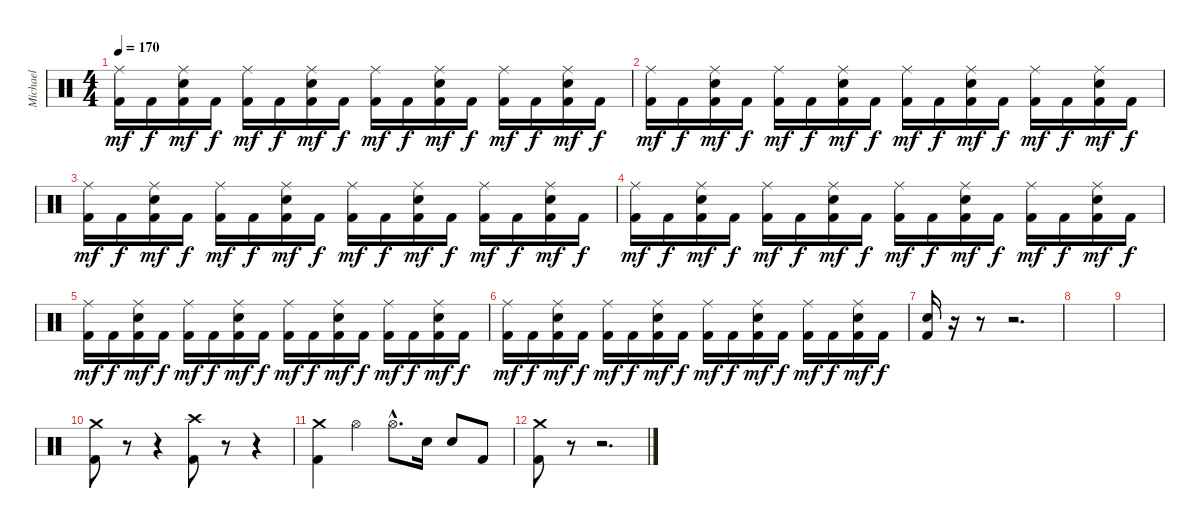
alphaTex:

\track ("Michael" "Michael") {instrument percussion}
\staff {score}
\articulation defaults
\ts (4 4)
\tempo 170
\clef neutral
\ks c
("Ride (middle)" "Kick (hit) 2").16{dy mf} "Kick (hit) 2".16{dy f} ("Ride (middle)" "Electric Snare (hit)" "Kick (hit) 2").16{dy mf} "Kick (hit) 2".16{dy f} ("Ride (middle)" "Kick (hit) 2").16{dy mf} "Kick (hit) 2".16{dy f} ("Ride (middle)" "Electric Snare (hit)" "Kick (hit) 2").16{dy mf} "Kick (hit) 2".16{dy f} ("Ride (middle)" "Kick (hit) 2").16{dy mf} "Kick (hit) 2".16{dy f} ("Ride (middle)" "Electric Snare (hit)" "Kick (hit) 2").16{dy mf} "Kick (hit) 2".16{dy f} ("Ride (middle)" "Kick (hit) 2").16{dy mf} "Kick (hit) 2".16{dy f} ("Ride (middle)" "Electric Snare (hit)" "Kick (hit) 2").16{dy mf} "Kick (hit) 2".16{dy f} |
("Ride (middle)" "Kick (hit) 2").16{dy mf} "Kick (hit) 2".16{dy f} ("Ride (middle)" "Electric Snare (hit)" "Kick (hit) 2").16{dy mf} "Kick (hit) 2".16{dy f} ("Ride (middle)" "Kick (hit) 2").16{dy mf} "Kick (hit) 2".16{dy f} ("Ride (middle)" "Electric Snare (hit)" "Kick (hit) 2").16{dy mf} "Kick (hit) 2".16{dy f} ("Ride (middle)" "Kick (hit) 2").16{dy mf} "Kick (hit) 2".16{dy f} ("Ride (middle)" "Electric Snare (hit)" "Kick (hit) 2").16{dy mf} "Kick (hit) 2".16{dy f} ("Ride (middle)" "Kick (hit) 2").16{dy mf} "Kick (hit) 2".16{dy f} ("Ride (middle)" "Electric Snare (hit)" "Kick (hit) 2").16{dy mf} "Kick (hit) 2".16{dy f} |
("Ride (middle)" "Kick (hit) 2").16{dy mf} "Kick (hit) 2".16{dy f} ("Ride (middle)" "Electric Snare (hit)" "Kick (hit) 2").16{dy mf} "Kick (hit) 2".16{dy f} ("Ride (middle)" "Kick (hit) 2").16{dy mf} "Kick (hit) 2".16{dy f} ("Ride (middle)" "Electric Snare (hit)" "Kick (hit) 2").16{dy mf} "Kick (hit) 2".16{dy f} ("Ride (middle)" "Kick (hit) 2").16{dy mf} "Kick (hit) 2".16{dy f} ("Ride (middle)" "Electric Snare (hit)" "Kick (hit) 2").16{dy mf} "Kick (hit) 2".16{dy f} ("Ride (middle)" "Kick (hit) 2").16{dy mf} "Kick (hit) 2".16{dy f} ("Ride (middle)" "Electric Snare (hit)" "Kick (hit) 2").16{dy mf} "Kick (hit) 2".16{dy f} |
("Ride (middle)" "Kick (hit) 2").16{dy mf} "Kick (hit) 2".16{dy f} ("Ride (middle)" "Electric Snare (hit)" "Kick (hit) 2").16{dy mf} "Kick (hit) 2".16{dy f} ("Ride (middle)" "Kick (hit) 2").16{dy mf} "Kick (hit) 2".16{dy f} ("Ride (middle)" "Electric Snare (hit)" "Kick (hit) 2").16{dy mf} "Kick (hit) 2".16{dy f} ("Ride (middle)" "Kick (hit) 2").16{dy mf} "Kick (hit) 2".16{dy f} ("Ride (middle)" "Electric Snare (hit)" "Kick (hit) 2").16{dy mf} "Kick (hit) 2".16{dy f} ("Ride (middle)" "Kick (hit) 2").16{dy mf} "Kick (hit) 2".16{dy f} ("Ride (middle)" "Electric Snare (hit)" "Kick (hit) 2").16{dy mf} "Kick (hit) 2".16{dy f} |
("Ride (middle)" "Kick (hit) 2").16{dy mf} "Kick (hit) 2".16{dy f} ("Ride (middle)" "Electric Snare (hit)" "Kick (hit) 2").16{dy mf} "Kick (hit) 2".16{dy f} ("Ride (middle)" "Kick (hit) 2").16{dy mf} "Kick (hit) 2".16{dy f} ("Ride (middle)" "Electric Snare (hit)" "Kick (hit) 2").16{dy mf} "Kick (hit) 2".16{dy f} ("Ride (middle)" "Kick (hit) 2").16{dy mf} "Kick (hit) 2".16{dy f} ("Ride (middle)" "Electric Snare (hit)" "Kick (hit) 2").16{dy mf} "Kick (hit) 2".16{dy f} ("Ride (middle)" "Kick (hit) 2").16{dy mf} "Kick (hit) 2".16{dy f} ("Ride (middle)" "Electric Snare (hit)" "Kick (hit) 2").16{dy mf} "Kick (hit) 2".16{dy f} |
("Ride (middle)" "Kick (hit) 2").16{dy mf} "Kick (hit) 2".16{dy f} ("Ride (middle)" "Electric Snare (hit)" "Kick (hit) 2").16{dy mf} "Kick (hit) 2".16{dy f} ("Ride (middle)" "Kick (hit) 2").16{dy mf} "Kick (hit) 2".16{dy f} ("Ride (middle)" "Electric Snare (hit)" "Kick (hit) 2").16{dy mf} "Kick (hit) 2".16{dy f} ("Ride (middle)" "Kick (hit) 2").16{dy mf} "Kick (hit) 2".16{dy f} ("Ride (middle)" "Electric Snare (hit)" "Kick (hit) 2").16{dy mf} "Kick (hit) 2".16{dy f} ("Ride (middle)" "Kick (hit) 2").16{dy mf} "Kick (hit) 2".16{dy f} ("Ride (middle)" "Electric Snare (hit)" "Kick (hit) 2").16{dy mf} "Kick (hit) 2".16{dy f} |
("Electric Snare (hit)" "Kick (hit) 2").16 r.16 r.8 r.2{d} |
|
|
("Crash medium (hit)" "Kick (hit) 2").8 r.8 r.4 ("Crash high (hit)" "Kick (hit) 2").8 r.8 r.4 |
("Crash medium (hit)" "Kick (hit) 2").4 "Hi-Hat (open)".4 "Hi-Hat (open)"{hac}.8{d} "Electric Snare (hit)".16 "Electric Snare (hit)".8 "Kick (hit) 2".8 |
("Crash medium (hit)" "Kick (hit) 2").8 r.8 r.2{d}
